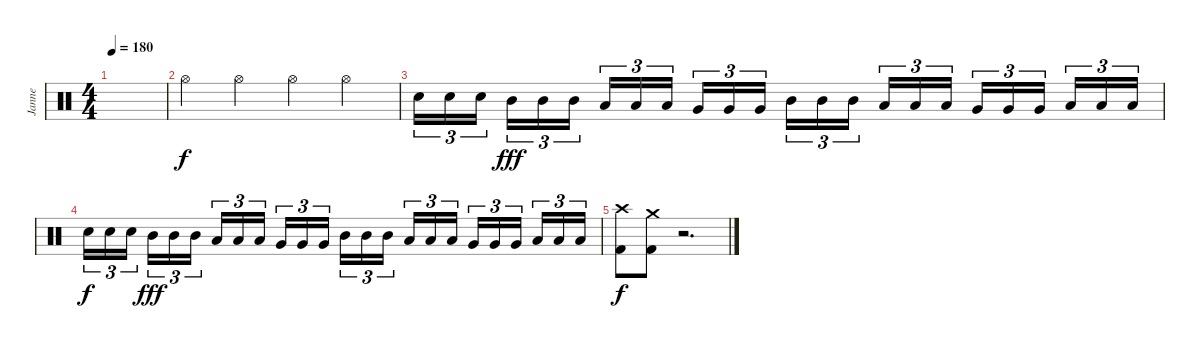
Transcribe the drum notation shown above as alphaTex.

\track ("Janne" "Janne") {instrument percussion}
\staff {score}
\articulation defaults
\ts (4 4)
\tempo 180
\clef neutral
\ks c
|
"Hi-Hat (open)".4 "Hi-Hat (open)".4 "Hi-Hat (open)".4 "Hi-Hat (open)".4 |
"Electric Snare (hit)".16{tu (3 2)} "Electric Snare (hit)".16{tu (3 2)} "Electric Snare (hit)".16{tu (3 2)} "Mid Tom (hit)".16{tu (3 2) dy fff} "Mid Tom (hit)".16{tu (3 2)} "Mid Tom (hit)".16{tu (3 2)} "Low Tom (hit)".16{tu (3 2)} "Low Tom (hit)".16{tu (3 2)} "Low Tom (hit)".16{tu (3 2)} "Very Low Tom (hit)".16{tu (3 2)} "Very Low Tom (hit)".16{tu (3 2)} "Very Low Tom (hit)".16{tu (3 2)} "Mid Tom (hit)".16{tu (3 2)} "Mid Tom (hit)".16{tu (3 2)} "Mid Tom (hit)".16{tu (3 2)} "Low Tom (hit)".16{tu (3 2)} "Low Tom (hit)".16{tu (3 2)} "Low Tom (hit)".16{tu (3 2)} "Very Low Tom (hit)".16{tu (3 2)} "Very Low Tom (hit)".16{tu (3 2)} "Very Low Tom (hit)".16{tu (3 2)} "Low Floor Tom (hit)".16{tu (3 2)} "Low Floor Tom (hit)".16{tu (3 2)} "Low Floor Tom (hit)".16{tu (3 2)} |
"Electric Snare (hit)".16{tu (3 2) dy f} "Electric Snare (hit)".16{tu (3 2)} "Electric Snare (hit)".16{tu (3 2)} "Mid Tom (hit)".16{tu (3 2) dy fff} "Mid Tom (hit)".16{tu (3 2)} "Mid Tom (hit)".16{tu (3 2)} "Low Tom (hit)".16{tu (3 2)} "Low Tom (hit)".16{tu (3 2)} "Low Tom (hit)".16{tu (3 2)} "Very Low Tom (hit)".16{tu (3 2)} "Very Low Tom (hit)".16{tu (3 2)} "Very Low Tom (hit)".16{tu (3 2)} "Mid Tom (hit)".16{tu (3 2)} "Mid Tom (hit)".16{tu (3 2)} "Mid Tom (hit)".16{tu (3 2)} "Low Tom (hit)".16{tu (3 2)} "Low Tom (hit)".16{tu (3 2)} "Low Tom (hit)".16{tu (3 2)} "Very Low Tom (hit)".16{tu (3 2)} "Very Low Tom (hit)".16{tu (3 2)} "Very Low Tom (hit)".16{tu (3 2)} "Low Floor Tom (hit)".16{tu (3 2)} "Low Floor Tom (hit)".16{tu (3 2)} "Low Floor Tom (hit)".16{tu (3 2)} |
("Crash high (hit)" "Kick (hit) 2").8{dy f} ("Crash medium (hit)" "Kick (hit) 2").8 r.2{d}
